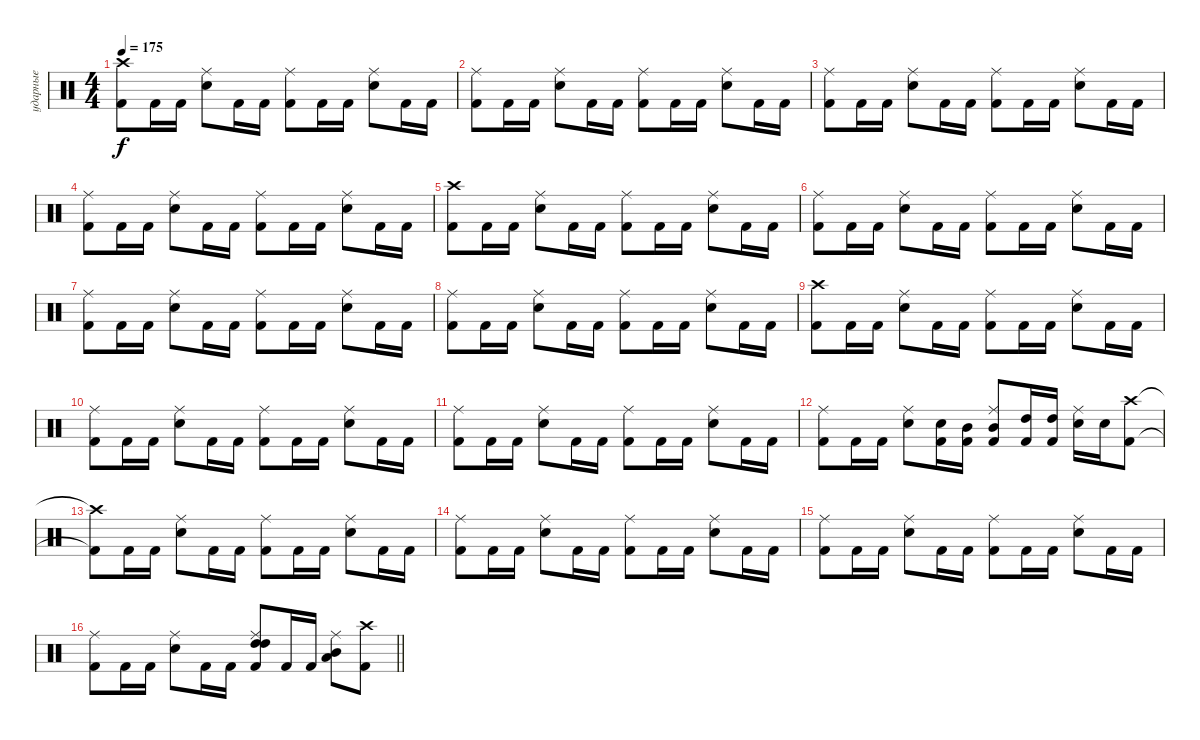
\track ("ударные" "ударные") {instrument percussion}
\staff {score}
\articulation defaults
\ts (4 4)
\tempo 175
\clef neutral
\ks c
("Kick (hit) 2" "Crash high (hit)").8{dy f} "Kick (hit) 2".16 "Kick (hit) 2".16 ("Snare (hit) 2" "Ride (middle)").8 "Kick (hit) 2".16 "Kick (hit) 2".16 ("Kick (hit) 2" "Ride (middle)").8 "Kick (hit) 2".16 "Kick (hit) 2".16 ("Snare (hit) 2" "Ride (middle)").8 "Kick (hit) 2".16 "Kick (hit) 2".16 |
("Kick (hit) 2" "Ride (middle)").8 "Kick (hit) 2".16 "Kick (hit) 2".16 ("Snare (hit) 2" "Ride (middle)").8 "Kick (hit) 2".16 "Kick (hit) 2".16 ("Kick (hit) 2" "Ride (middle)").8 "Kick (hit) 2".16 "Kick (hit) 2".16 ("Snare (hit) 2" "Ride (middle)").8 "Kick (hit) 2".16 "Kick (hit) 2".16 |
("Kick (hit) 2" "Ride (middle)").8 "Kick (hit) 2".16 "Kick (hit) 2".16 ("Snare (hit) 2" "Ride (middle)").8 "Kick (hit) 2".16 "Kick (hit) 2".16 ("Kick (hit) 2" "Ride (middle)").8 "Kick (hit) 2".16 "Kick (hit) 2".16 ("Snare (hit) 2" "Ride (middle)").8 "Kick (hit) 2".16 "Kick (hit) 2".16 |
("Kick (hit) 2" "Ride (middle)").8 "Kick (hit) 2".16 "Kick (hit) 2".16 ("Snare (hit) 2" "Ride (middle)").8 "Kick (hit) 2".16 "Kick (hit) 2".16 ("Kick (hit) 2" "Ride (middle)").8 "Kick (hit) 2".16 "Kick (hit) 2".16 ("Snare (hit) 2" "Ride (middle)").8 "Kick (hit) 2".16 "Kick (hit) 2".16 |
("Kick (hit) 2" "Crash high (hit)").8 "Kick (hit) 2".16 "Kick (hit) 2".16 ("Snare (hit) 2" "Ride (middle)").8 "Kick (hit) 2".16 "Kick (hit) 2".16 ("Kick (hit) 2" "Ride (middle)").8 "Kick (hit) 2".16 "Kick (hit) 2".16 ("Snare (hit) 2" "Ride (middle)").8 "Kick (hit) 2".16 "Kick (hit) 2".16 |
("Kick (hit) 2" "Ride (middle)").8 "Kick (hit) 2".16 "Kick (hit) 2".16 ("Snare (hit) 2" "Ride (middle)").8 "Kick (hit) 2".16 "Kick (hit) 2".16 ("Kick (hit) 2" "Ride (middle)").8 "Kick (hit) 2".16 "Kick (hit) 2".16 ("Snare (hit) 2" "Ride (middle)").8 "Kick (hit) 2".16 "Kick (hit) 2".16 |
("Kick (hit) 2" "Ride (middle)").8 "Kick (hit) 2".16 "Kick (hit) 2".16 ("Snare (hit) 2" "Ride (middle)").8 "Kick (hit) 2".16 "Kick (hit) 2".16 ("Kick (hit) 2" "Ride (middle)").8 "Kick (hit) 2".16 "Kick (hit) 2".16 ("Snare (hit) 2" "Ride (middle)").8 "Kick (hit) 2".16 "Kick (hit) 2".16 |
("Kick (hit) 2" "Ride (middle)").8 "Kick (hit) 2".16 "Kick (hit) 2".16 ("Snare (hit) 2" "Ride (middle)").8 "Kick (hit) 2".16 "Kick (hit) 2".16 ("Kick (hit) 2" "Ride (middle)").8 "Kick (hit) 2".16 "Kick (hit) 2".16 ("Snare (hit) 2" "Ride (middle)").8 "Kick (hit) 2".16 "Kick (hit) 2".16 |
("Kick (hit) 2" "Crash high (hit)").8 "Kick (hit) 2".16 "Kick (hit) 2".16 ("Snare (hit) 2" "Ride (middle)").8 "Kick (hit) 2".16 "Kick (hit) 2".16 ("Kick (hit) 2" "Ride (middle)").8 "Kick (hit) 2".16 "Kick (hit) 2".16 ("Snare (hit) 2" "Ride (middle)").8 "Kick (hit) 2".16 "Kick (hit) 2".16 |
("Kick (hit) 2" "Ride (middle)").8 "Kick (hit) 2".16 "Kick (hit) 2".16 ("Snare (hit) 2" "Ride (middle)").8 "Kick (hit) 2".16 "Kick (hit) 2".16 ("Kick (hit) 2" "Ride (middle)").8 "Kick (hit) 2".16 "Kick (hit) 2".16 ("Snare (hit) 2" "Ride (middle)").8 "Kick (hit) 2".16 "Kick (hit) 2".16 |
("Kick (hit) 2" "Ride (middle)").8 "Kick (hit) 2".16 "Kick (hit) 2".16 ("Snare (hit) 2" "Ride (middle)").8 "Kick (hit) 2".16 "Kick (hit) 2".16 ("Kick (hit) 2" "Ride (middle)").8 "Kick (hit) 2".16 "Kick (hit) 2".16 ("Snare (hit) 2" "Ride (middle)").8 "Kick (hit) 2".16 "Kick (hit) 2".16 |
("Kick (hit) 2" "Ride (middle)").8 "Kick (hit) 2".16 "Kick (hit) 2".16 ("Snare (hit) 2" "Ride (middle)").8 ("Kick (hit) 2" "Snare (hit) 2").16 ("Kick (hit) 2" "Mid Tom (hit)").16 ("Kick (hit) 2" "Mid Tom (hit)" "Ride (middle)").8 ("Kick (hit) 2" "High Tom (hit)").16 ("Kick (hit) 2" "High Tom (hit)").16 ("Snare (hit) 2" "Ride (middle)").16 "Snare (hit) 2".16 ("Kick (hit) 2" "Crash high (hit)").8 |
("Kick (hit) 2"{t} "Crash high (hit)"{t}).8 "Kick (hit) 2".16 "Kick (hit) 2".16 ("Snare (hit) 2" "Ride (middle)").8 "Kick (hit) 2".16 "Kick (hit) 2".16 ("Kick (hit) 2" "Ride (middle)").8 "Kick (hit) 2".16 "Kick (hit) 2".16 ("Snare (hit) 2" "Ride (middle)").8 "Kick (hit) 2".16 "Kick (hit) 2".16 |
("Kick (hit) 2" "Ride (middle)").8 "Kick (hit) 2".16 "Kick (hit) 2".16 ("Snare (hit) 2" "Ride (middle)").8 "Kick (hit) 2".16 "Kick (hit) 2".16 ("Kick (hit) 2" "Ride (middle)").8 "Kick (hit) 2".16 "Kick (hit) 2".16 ("Snare (hit) 2" "Ride (middle)").8 "Kick (hit) 2".16 "Kick (hit) 2".16 |
("Kick (hit) 2" "Ride (middle)").8 "Kick (hit) 2".16 "Kick (hit) 2".16 ("Snare (hit) 2" "Ride (middle)").8 "Kick (hit) 2".16 "Kick (hit) 2".16 ("Kick (hit) 2" "Ride (middle)").8 "Kick (hit) 2".16 "Kick (hit) 2".16 ("Snare (hit) 2" "Ride (middle)").8 "Kick (hit) 2".16 "Kick (hit) 2".16 |
\barLineRight lightlight
("Kick (hit) 2" "Ride (middle)").8 "Kick (hit) 2".16 "Kick (hit) 2".16 ("Snare (hit) 2" "Ride (middle)").8 "Kick (hit) 2".16 "Kick (hit) 2".16 ("Kick (hit) 2" "High Tom (hit)" "Ride (middle)" "High Tom (hit)").8 "Kick (hit) 2".16 "Kick (hit) 2".16 ("Mid Tom (hit)" "Ride (middle)" "Low Tom (hit)").8 ("Kick (hit) 2" "Crash high (hit)").8
